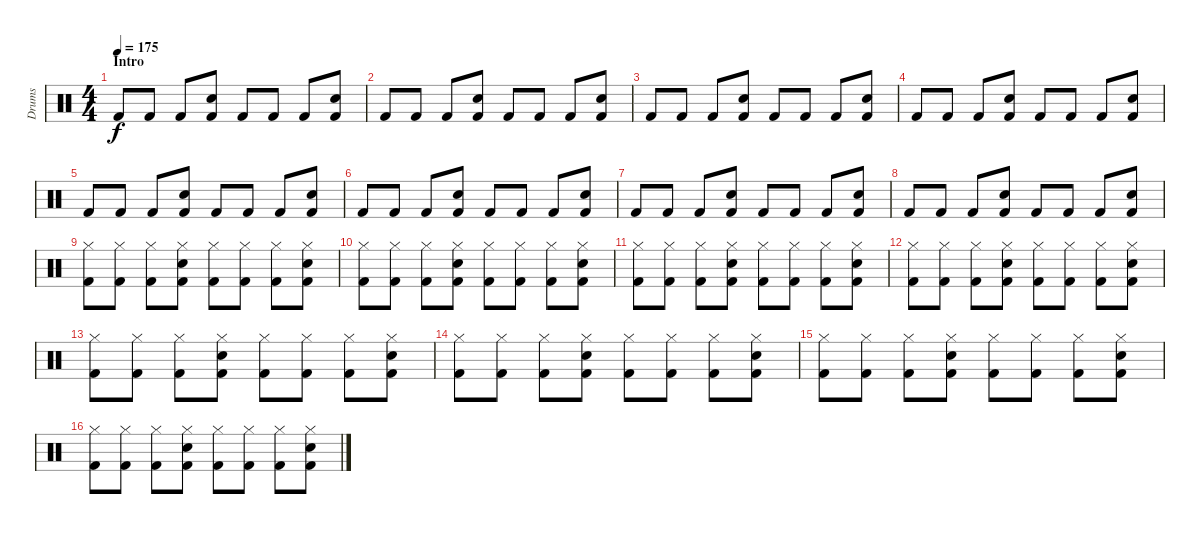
\track ("Drums" "Drums") {instrument percussion}
\staff {score}
\articulation defaults
\ts (4 4)
\section ("" "Intro")
\tempo 175
\clef neutral
\ks c "Kick (hit) 2".8{dy f} "Kick (hit) 2".8 "Kick (hit) 2".8
("Kick (hit) 2" "Snare (hit) 2").8 "Kick (hit) 2".8 "Kick (hit) 2".8 "Kick (hit) 2".8 ("Kick (hit) 2" "Snare (hit) 2").8 |
"Kick (hit) 2".8 "Kick (hit) 2".8 "Kick (hit) 2".8 ("Kick (hit) 2" "Snare (hit) 2").8 "Kick (hit) 2".8 "Kick (hit) 2".8 "Kick (hit) 2".8 ("Kick (hit) 2" "Snare (hit) 2").8 |
"Kick (hit) 2".8 "Kick (hit) 2".8 "Kick (hit) 2".8 ("Kick (hit) 2" "Snare (hit) 2").8 "Kick (hit) 2".8 "Kick (hit) 2".8 "Kick (hit) 2".8 ("Kick (hit) 2" "Snare (hit) 2").8 |
"Kick (hit) 2".8 "Kick (hit) 2".8 "Kick (hit) 2".8 ("Kick (hit) 2" "Snare (hit) 2").8 "Kick (hit) 2".8 "Kick (hit) 2".8 "Kick (hit) 2".8 ("Kick (hit) 2" "Snare (hit) 2").8 |
"Kick (hit) 2".8 "Kick (hit) 2".8 "Kick (hit) 2".8 ("Kick (hit) 2" "Snare (hit) 2").8 "Kick (hit) 2".8 "Kick (hit) 2".8 "Kick (hit) 2".8 ("Kick (hit) 2" "Snare (hit) 2").8 |
"Kick (hit) 2".8 "Kick (hit) 2".8 "Kick (hit) 2".8 ("Kick (hit) 2" "Snare (hit) 2").8 "Kick (hit) 2".8 "Kick (hit) 2".8 "Kick (hit) 2".8 ("Kick (hit) 2" "Snare (hit) 2").8 |
"Kick (hit) 2".8 "Kick (hit) 2".8 "Kick (hit) 2".8 ("Kick (hit) 2" "Snare (hit) 2").8 "Kick (hit) 2".8 "Kick (hit) 2".8 "Kick (hit) 2".8 ("Kick (hit) 2" "Snare (hit) 2").8 |
"Kick (hit) 2".8 "Kick (hit) 2".8 "Kick (hit) 2".8 ("Kick (hit) 2" "Snare (hit) 2").8 "Kick (hit) 2".8 "Kick (hit) 2".8 "Kick (hit) 2".8 ("Kick (hit) 2" "Snare (hit) 2").8 |
("Kick (hit) 2" "Hi-Hat (closed)").8 ("Kick (hit) 2" "Hi-Hat (closed)").8 ("Kick (hit) 2" "Hi-Hat (closed)").8 ("Kick (hit) 2" "Hi-Hat (closed)" "Snare (hit) 2").8 ("Kick (hit) 2" "Hi-Hat (closed)").8 ("Kick (hit) 2" "Hi-Hat (closed)").8 ("Kick (hit) 2" "Hi-Hat (closed)").8 ("Kick (hit) 2" "Hi-Hat (closed)" "Snare (hit) 2").8 |
("Kick (hit) 2" "Hi-Hat (closed)").8 ("Kick (hit) 2" "Hi-Hat (closed)").8 ("Kick (hit) 2" "Hi-Hat (closed)").8 ("Kick (hit) 2" "Hi-Hat (closed)" "Snare (hit) 2").8 ("Kick (hit) 2" "Hi-Hat (closed)").8 ("Kick (hit) 2" "Hi-Hat (closed)").8 ("Kick (hit) 2" "Hi-Hat (closed)").8 ("Kick (hit) 2" "Hi-Hat (closed)" "Snare (hit) 2").8 |
("Kick (hit) 2" "Hi-Hat (closed)").8 ("Kick (hit) 2" "Hi-Hat (closed)").8 ("Kick (hit) 2" "Hi-Hat (closed)").8 ("Kick (hit) 2" "Hi-Hat (closed)" "Snare (hit) 2").8 ("Kick (hit) 2" "Hi-Hat (closed)").8 ("Kick (hit) 2" "Hi-Hat (closed)").8 ("Kick (hit) 2" "Hi-Hat (closed)").8 ("Kick (hit) 2" "Hi-Hat (closed)" "Snare (hit) 2").8 |
("Kick (hit) 2" "Hi-Hat (closed)").8 ("Kick (hit) 2" "Hi-Hat (closed)").8 ("Kick (hit) 2" "Hi-Hat (closed)").8 ("Kick (hit) 2" "Hi-Hat (closed)" "Snare (hit) 2").8 ("Kick (hit) 2" "Hi-Hat (closed)").8 ("Kick (hit) 2" "Hi-Hat (closed)").8 ("Kick (hit) 2" "Hi-Hat (closed)").8 ("Kick (hit) 2" "Hi-Hat (closed)" "Snare (hit) 2").8 |
("Kick (hit) 2" "Hi-Hat (closed)").8 ("Kick (hit) 2" "Hi-Hat (closed)").8 ("Kick (hit) 2" "Hi-Hat (closed)").8 ("Kick (hit) 2" "Hi-Hat (closed)" "Snare (hit) 2").8 ("Kick (hit) 2" "Hi-Hat (closed)").8 ("Kick (hit) 2" "Hi-Hat (closed)").8 ("Kick (hit) 2" "Hi-Hat (closed)").8 ("Kick (hit) 2" "Hi-Hat (closed)" "Snare (hit) 2").8 |
("Kick (hit) 2" "Hi-Hat (closed)").8 ("Kick (hit) 2" "Hi-Hat (closed)").8 ("Kick (hit) 2" "Hi-Hat (closed)").8 ("Kick (hit) 2" "Hi-Hat (closed)" "Snare (hit) 2").8 ("Kick (hit) 2" "Hi-Hat (closed)").8 ("Kick (hit) 2" "Hi-Hat (closed)").8 ("Kick (hit) 2" "Hi-Hat (closed)").8 ("Kick (hit) 2" "Hi-Hat (closed)" "Snare (hit) 2").8 |
("Kick (hit) 2" "Hi-Hat (closed)").8 ("Kick (hit) 2" "Hi-Hat (closed)").8 ("Kick (hit) 2" "Hi-Hat (closed)").8 ("Kick (hit) 2" "Hi-Hat (closed)" "Snare (hit) 2").8 ("Kick (hit) 2" "Hi-Hat (closed)").8 ("Kick (hit) 2" "Hi-Hat (closed)").8 ("Kick (hit) 2" "Hi-Hat (closed)").8 ("Kick (hit) 2" "Hi-Hat (closed)" "Snare (hit) 2").8 |
("Kick (hit) 2" "Hi-Hat (closed)").8 ("Kick (hit) 2" "Hi-Hat (closed)").8 ("Kick (hit) 2" "Hi-Hat (closed)").8 ("Kick (hit) 2" "Hi-Hat (closed)" "Snare (hit) 2").8 ("Kick (hit) 2" "Hi-Hat (closed)").8 ("Kick (hit) 2" "Hi-Hat (closed)").8 ("Kick (hit) 2" "Hi-Hat (closed)").8 ("Kick (hit) 2" "Hi-Hat (closed)" "Snare (hit) 2").8
